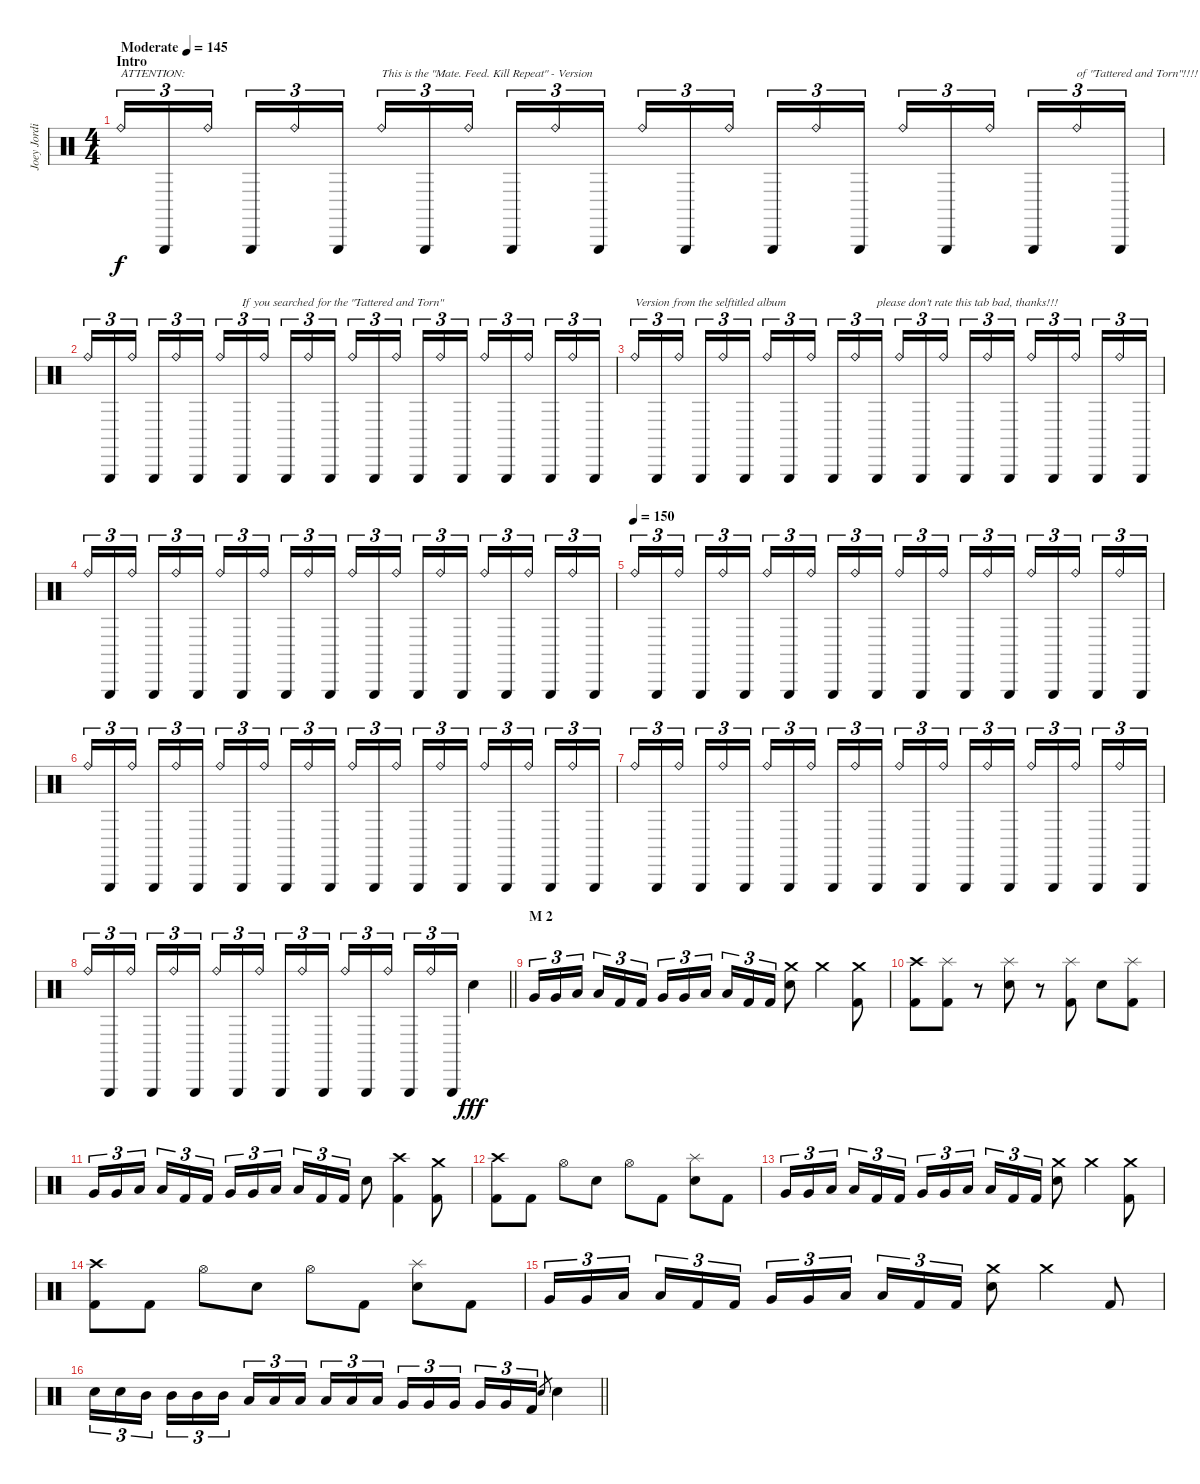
\track ("Joey Jordison" "Joey Jordi") {instrument percussion}
\staff {score}
\articulation defaults
\ts (4 4)
\section ("" "Intro")
\tempo (145 "Moderate")
\tempo 147
\tempo (145 "Moderate")
\clef neutral
\ks c "Ride (bell)".16{tu (3 2) txt "ATTENTION:" dy f balance 16} "Triangle (hit)".16{tu (3 2) balance 0} "Ride (bell)".16{tu (3 2) beam splitsecondary} "Triangle (hit)".16{tu (3 2)} "Ride (bell)".16{tu (3 2)} "Triangle (hit)".16{tu (3 2)} "Ride (bell)".16{tu (3 2) txt "This is the \"Mate. Feed. Kill Repeat\" - Version"} "Triangle (hit)".16{tu (3 2)} "Ride (bell)".16{tu (3 2) beam splitsecondary} "Triangle (hit)".16{tu (3 2)} "Ride (bell)".16{tu (3 2)} "Triangle (hit)".16{tu (3 2)} "Ride (bell)".16{tu (3 2)} "Triangle (hit)".16{tu (3 2)} "Ride (bell)".16{tu (3 2) beam splitsecondary} "Triangle (hit)".16{tu (3 2)} "Ride (bell)".16{tu (3 2)} "Triangle (hit)".16{tu (3 2)} "Ride (bell)".16{tu (3 2)} "Triangle (hit)".16{tu (3 2)} "Ride (bell)".16{tu (3 2) beam splitsecondary} "Triangle (hit)".16{tu (3 2)} "Ride (bell)".16{tu (3 2) txt "of \"Tattered and Torn\"!!!!"} "Triangle (hit)".16{tu (3 2)}
|
"Ride (bell)".16{tu (3 2) balance 16} "Triangle (hit)".16{tu (3 2)} "Ride (bell)".16{tu (3 2) beam splitsecondary} "Triangle (hit)".16{tu (3 2)} "Ride (bell)".16{tu (3 2)} "Triangle (hit)".16{tu (3 2)} "Ride (bell)".16{tu (3 2)} "Triangle (hit)".16{tu (3 2) txt "If you searched for the \"Tattered and Torn\" "} "Ride (bell)".16{tu (3 2) beam splitsecondary} "Triangle (hit)".16{tu (3 2)} "Ride (bell)".16{tu (3 2)} "Triangle (hit)".16{tu (3 2)} "Ride (bell)".16{tu (3 2)} "Triangle (hit)".16{tu (3 2)} "Ride (bell)".16{tu (3 2) beam splitsecondary} "Triangle (hit)".16{tu (3 2)} "Ride (bell)".16{tu (3 2)} "Triangle (hit)".16{tu (3 2)} "Ride (bell)".16{tu (3 2)} "Triangle (hit)".16{tu (3 2)} "Ride (bell)".16{tu (3 2) beam splitsecondary} "Triangle (hit)".16{tu (3 2)} "Ride (bell)".16{tu (3 2)} "Triangle (hit)".16{tu (3 2)} |
"Ride (bell)".16{tu (3 2) txt "Version from the selftitled album" balance 0} "Triangle (hit)".16{tu (3 2)} "Ride (bell)".16{tu (3 2) beam splitsecondary} "Triangle (hit)".16{tu (3 2)} "Ride (bell)".16{tu (3 2)} "Triangle (hit)".16{tu (3 2)} "Ride (bell)".16{tu (3 2)} "Triangle (hit)".16{tu (3 2)} "Ride (bell)".16{tu (3 2) beam splitsecondary} "Triangle (hit)".16{tu (3 2)} "Ride (bell)".16{tu (3 2)} "Triangle (hit)".16{tu (3 2) txt "please don't rate this tab bad, thanks!!!"} "Ride (bell)".16{tu (3 2)} "Triangle (hit)".16{tu (3 2)} "Ride (bell)".16{tu (3 2) beam splitsecondary} "Triangle (hit)".16{tu (3 2)} "Ride (bell)".16{tu (3 2)} "Triangle (hit)".16{tu (3 2)} "Ride (bell)".16{tu (3 2)} "Triangle (hit)".16{tu (3 2)} "Ride (bell)".16{tu (3 2) beam splitsecondary} "Triangle (hit)".16{tu (3 2)} "Ride (bell)".16{tu (3 2)} "Triangle (hit)".16{tu (3 2)} |
"Ride (bell)".16{tu (3 2) balance 16} "Triangle (hit)".16{tu (3 2)} "Ride (bell)".16{tu (3 2) beam splitsecondary} "Triangle (hit)".16{tu (3 2)} "Ride (bell)".16{tu (3 2)} "Triangle (hit)".16{tu (3 2)} "Ride (bell)".16{tu (3 2)} "Triangle (hit)".16{tu (3 2)} "Ride (bell)".16{tu (3 2) beam splitsecondary} "Triangle (hit)".16{tu (3 2)} "Ride (bell)".16{tu (3 2)} "Triangle (hit)".16{tu (3 2)} "Ride (bell)".16{tu (3 2)} "Triangle (hit)".16{tu (3 2)} "Ride (bell)".16{tu (3 2) beam splitsecondary} "Triangle (hit)".16{tu (3 2)} "Ride (bell)".16{tu (3 2)} "Triangle (hit)".16{tu (3 2)} "Ride (bell)".16{tu (3 2)} "Triangle (hit)".16{tu (3 2)} "Ride (bell)".16{tu (3 2) beam splitsecondary} "Triangle (hit)".16{tu (3 2)} "Ride (bell)".16{tu (3 2)} "Triangle (hit)".16{tu (3 2)} |
\tempo (150)
"Ride (bell)".16{tu (3 2) balance 0} "Triangle (hit)".16{tu (3 2)} "Ride (bell)".16{tu (3 2) beam splitsecondary} "Triangle (hit)".16{tu (3 2)} "Ride (bell)".16{tu (3 2)} "Triangle (hit)".16{tu (3 2)} "Ride (bell)".16{tu (3 2)} "Triangle (hit)".16{tu (3 2)} "Ride (bell)".16{tu (3 2) beam splitsecondary} "Triangle (hit)".16{tu (3 2)} "Ride (bell)".16{tu (3 2)} "Triangle (hit)".16{tu (3 2)} "Ride (bell)".16{tu (3 2)} "Triangle (hit)".16{tu (3 2)} "Ride (bell)".16{tu (3 2) beam splitsecondary} "Triangle (hit)".16{tu (3 2)} "Ride (bell)".16{tu (3 2)} "Triangle (hit)".16{tu (3 2)} "Ride (bell)".16{tu (3 2)} "Triangle (hit)".16{tu (3 2)} "Ride (bell)".16{tu (3 2) beam splitsecondary} "Triangle (hit)".16{tu (3 2)} "Ride (bell)".16{tu (3 2)} "Triangle (hit)".16{tu (3 2)} |
"Ride (bell)".16{tu (3 2) balance 16} "Triangle (hit)".16{tu (3 2)} "Ride (bell)".16{tu (3 2) beam splitsecondary} "Triangle (hit)".16{tu (3 2)} "Ride (bell)".16{tu (3 2)} "Triangle (hit)".16{tu (3 2)} "Ride (bell)".16{tu (3 2)} "Triangle (hit)".16{tu (3 2)} "Ride (bell)".16{tu (3 2) beam splitsecondary} "Triangle (hit)".16{tu (3 2)} "Ride (bell)".16{tu (3 2)} "Triangle (hit)".16{tu (3 2)} "Ride (bell)".16{tu (3 2)} "Triangle (hit)".16{tu (3 2)} "Ride (bell)".16{tu (3 2) beam splitsecondary} "Triangle (hit)".16{tu (3 2)} "Ride (bell)".16{tu (3 2)} "Triangle (hit)".16{tu (3 2)} "Ride (bell)".16{tu (3 2)} "Triangle (hit)".16{tu (3 2)} "Ride (bell)".16{tu (3 2) beam splitsecondary} "Triangle (hit)".16{tu (3 2)} "Ride (bell)".16{tu (3 2)} "Triangle (hit)".16{tu (3 2)} |
"Ride (bell)".16{tu (3 2) balance 0} "Triangle (hit)".16{tu (3 2)} "Ride (bell)".16{tu (3 2) beam splitsecondary} "Triangle (hit)".16{tu (3 2)} "Ride (bell)".16{tu (3 2)} "Triangle (hit)".16{tu (3 2)} "Ride (bell)".16{tu (3 2)} "Triangle (hit)".16{tu (3 2)} "Ride (bell)".16{tu (3 2) beam splitsecondary} "Triangle (hit)".16{tu (3 2)} "Ride (bell)".16{tu (3 2)} "Triangle (hit)".16{tu (3 2)} "Ride (bell)".16{tu (3 2)} "Triangle (hit)".16{tu (3 2)} "Ride (bell)".16{tu (3 2) beam splitsecondary} "Triangle (hit)".16{tu (3 2)} "Ride (bell)".16{tu (3 2)} "Triangle (hit)".16{tu (3 2)} "Ride (bell)".16{tu (3 2)} "Triangle (hit)".16{tu (3 2)} "Ride (bell)".16{tu (3 2) beam splitsecondary} "Triangle (hit)".16{tu (3 2)} "Ride (bell)".16{tu (3 2)} "Triangle (hit)".16{tu (3 2)} |
\barLineRight lightlight "Ride (bell)".16{tu (3 2) balance 16} "Triangle (hit)".16{tu (3 2)} "Ride (bell)".16{tu (3 2) beam splitsecondary} "Triangle (hit)".16{tu (3 2)} "Ride (bell)".16{tu (3 2)} "Triangle (hit)".16{tu (3 2)} "Ride (bell)".16{tu (3 2)} "Triangle (hit)".16{tu (3 2)} "Ride (bell)".16{tu (3 2) beam splitsecondary} "Triangle (hit)".16{tu (3 2)} "Ride (bell)".16{tu (3 2)} "Triangle (hit)".16{tu (3 2)} "Ride (bell)".16{tu (3 2)} "Triangle (hit)".16{tu (3 2)} "Ride (bell)".16{tu (3 2) beam splitsecondary} "Triangle (hit)".16{tu (3 2)} "Ride (bell)".16{tu (3 2)} "Triangle (hit)".16{tu (3 2)} "Electric Snare (hit)".4{dy fff balance 8}
|
\section ("" "M 2")
"Very Low Tom (hit)".16{tu (3 2)} "Very Low Tom (hit)".16{tu (3 2)} "Low Floor Tom (hit)".16{tu (3 2) beam splitsecondary} "Low Floor Tom (hit)".16{tu (3 2)} "Kick (hit) 2".16{tu (3 2)} "Kick (hit) 2".16{tu (3 2)} "Very Low Tom (hit)".16{tu (3 2)} "Very Low Tom (hit)".16{tu (3 2)} "Low Floor Tom (hit)".16{tu (3 2) beam splitsecondary} "Low Floor Tom (hit)".16{tu (3 2)} "Kick (hit) 2".16{tu (3 2)} "Kick (hit) 2".16{tu (3 2)} ("Crash medium (hit)" "Electric Snare (hit)").8 "Crash medium (hit)".4 ("Crash medium (hit)" "Kick (hit) 2").8 |
("Crash high (hit)" "Kick (hit) 2").8 ("Splash (hit)" "Kick (hit) 2").8 r.8 ("Splash (hit)" "Electric Snare (hit)").8 r.8 ("Splash (hit)" "Kick (hit) 2").8 "Electric Snare (hit)".8 ("Splash (hit)" "Kick (hit) 2").8 |
"Very Low Tom (hit)".16{tu (3 2)} "Very Low Tom (hit)".16{tu (3 2)} "Low Floor Tom (hit)".16{tu (3 2) beam splitsecondary} "Low Floor Tom (hit)".16{tu (3 2)} "Kick (hit) 2".16{tu (3 2)} "Kick (hit) 2".16{tu (3 2)} "Very Low Tom (hit)".16{tu (3 2)} "Very Low Tom (hit)".16{tu (3 2)} "Low Floor Tom (hit)".16{tu (3 2) beam splitsecondary} "Low Floor Tom (hit)".16{tu (3 2)} "Kick (hit) 2".16{tu (3 2)} "Kick (hit) 2".16{tu (3 2)} "Electric Snare (hit)".8 ("Crash high (hit)" "Kick (hit) 2").4 ("Crash medium (hit)" "Kick (hit) 2").8 |
("Crash high (hit)" "Kick (hit) 2").8 "Kick (hit) 2".8 "Hi-Hat (open)".8 "Electric Snare (hit)".8 "Hi-Hat (open)".8 "Kick (hit) 2".8 ("Splash (hit)" "Electric Snare (hit)").8 "Kick (hit) 2".8 |
"Very Low Tom (hit)".16{tu (3 2)} "Very Low Tom (hit)".16{tu (3 2)} "Low Floor Tom (hit)".16{tu (3 2) beam splitsecondary} "Low Floor Tom (hit)".16{tu (3 2)} "Kick (hit) 2".16{tu (3 2)} "Kick (hit) 2".16{tu (3 2)} "Very Low Tom (hit)".16{tu (3 2)} "Very Low Tom (hit)".16{tu (3 2)} "Low Floor Tom (hit)".16{tu (3 2) beam splitsecondary} "Low Floor Tom (hit)".16{tu (3 2)} "Kick (hit) 2".16{tu (3 2)} "Kick (hit) 2".16{tu (3 2)} ("Crash medium (hit)" "Electric Snare (hit)").8 "Crash medium (hit)".4 ("Crash medium (hit)" "Kick (hit) 2").8 |
("Crash high (hit)" "Kick (hit) 2").8 "Kick (hit) 2".8 "Hi-Hat (open)".8 "Electric Snare (hit)".8 "Hi-Hat (open)".8 "Kick (hit) 2".8 ("Splash (hit)" "Electric Snare (hit)").8 "Kick (hit) 2".8 |
"Very Low Tom (hit)".16{tu (3 2)} "Very Low Tom (hit)".16{tu (3 2)} "Low Floor Tom (hit)".16{tu (3 2) beam splitsecondary} "Low Floor Tom (hit)".16{tu (3 2)} "Kick (hit) 2".16{tu (3 2)} "Kick (hit) 2".16{tu (3 2)} "Very Low Tom (hit)".16{tu (3 2)} "Very Low Tom (hit)".16{tu (3 2)} "Low Floor Tom (hit)".16{tu (3 2) beam splitsecondary} "Low Floor Tom (hit)".16{tu (3 2)} "Kick (hit) 2".16{tu (3 2)} "Kick (hit) 2".16{tu (3 2)} ("Crash medium (hit)" "Electric Snare (hit)").8 "Crash medium (hit)".4 "Kick (hit) 2".8 |
\barLineRight lightlight "Electric Snare (hit)".16{tu (3 2)} "Electric Snare (hit)".16{tu (3 2)} "Mid Tom (hit)".16{tu (3 2) beam splitsecondary} "Mid Tom (hit)".16{tu (3 2)} "Mid Tom (hit)".16{tu (3 2)} "Mid Tom (hit)".16{tu (3 2)} "Low Tom (hit)".16{tu (3 2)} "Low Tom (hit)".16{tu (3 2)} "Low Tom (hit)".16{tu (3 2) beam splitsecondary} "Low Tom (hit)".16{tu (3 2)} "Low Tom (hit)".16{tu (3 2)} "Low Tom (hit)".16{tu (3 2)} "Very Low Tom (hit)".16{tu (3 2)} "Very Low Tom (hit)".16{tu (3 2)} "Very Low Tom (hit)".16{tu (3 2) beam splitsecondary} "Very Low Tom (hit)".16{tu (3 2)} "Very Low Tom (hit)".16{tu (3 2)} "Kick (hit) 2".16{tu (3 2)} "Electric Snare (hit)".8{gr} "Electric Snare (hit)".4
